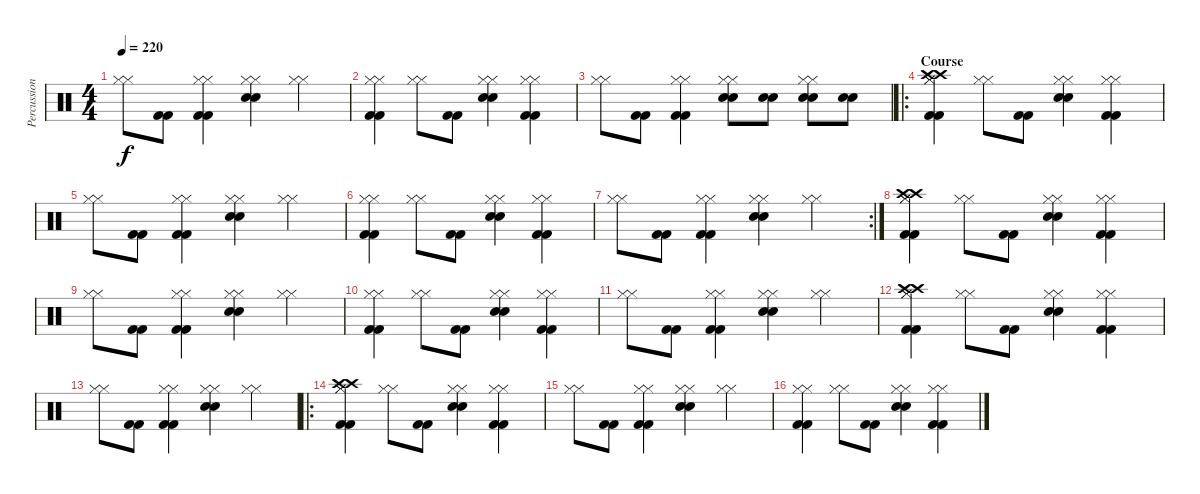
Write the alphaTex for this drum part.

\track ("Percussion" "Percussion") {instrument percussion}
\staff {score}
\articulation defaults
\ts (4 4)
\tempo 220
\clef neutral
\ks c
("Hi-Hat (closed)" "Hi-Hat (closed)").8{dy f} ("Kick (hit) 2" "Kick (hit) 2").8 ("Hi-Hat (closed)" "Hi-Hat (closed)" "Kick (hit) 2" "Kick (hit) 2").4 ("Hi-Hat (closed)" "Hi-Hat (closed)" "Electric Snare (hit)" "Electric Snare (hit)").4 ("Hi-Hat (closed)" "Hi-Hat (closed)").4 |
("Hi-Hat (closed)" "Hi-Hat (closed)" "Kick (hit) 2" "Kick (hit) 2").4 ("Hi-Hat (closed)" "Hi-Hat (closed)").8 ("Kick (hit) 2" "Kick (hit) 2").8 ("Hi-Hat (closed)" "Hi-Hat (closed)" "Electric Snare (hit)" "Electric Snare (hit)").4 ("Hi-Hat (closed)" "Hi-Hat (closed)" "Kick (hit) 2" "Kick (hit) 2").4 |
("Hi-Hat (closed)" "Hi-Hat (closed)").8 ("Kick (hit) 2" "Kick (hit) 2").8 ("Hi-Hat (closed)" "Hi-Hat (closed)" "Kick (hit) 2" "Kick (hit) 2").4 ("Hi-Hat (closed)" "Hi-Hat (closed)" "Electric Snare (hit)" "Electric Snare (hit)").8 ("Electric Snare (hit)" "Electric Snare (hit)").8 ("Hi-Hat (closed)" "Hi-Hat (closed)" "Electric Snare (hit)" "Electric Snare (hit)").8 ("Electric Snare (hit)" "Electric Snare (hit)").8 |
\ro
\section ("" "Course")
("Hi-Hat (closed)" "Hi-Hat (closed)" "Kick (hit) 2" "Kick (hit) 2" "Crash high (hit)" "Crash high (hit)").4 ("Hi-Hat (closed)" "Hi-Hat (closed)").8 ("Kick (hit) 2" "Kick (hit) 2").8 ("Hi-Hat (closed)" "Hi-Hat (closed)" "Electric Snare (hit)" "Electric Snare (hit)").4 ("Hi-Hat (closed)" "Hi-Hat (closed)" "Kick (hit) 2" "Kick (hit) 2").4 |
("Hi-Hat (closed)" "Hi-Hat (closed)").8 ("Kick (hit) 2" "Kick (hit) 2").8 ("Hi-Hat (closed)" "Hi-Hat (closed)" "Kick (hit) 2" "Kick (hit) 2").4 ("Hi-Hat (closed)" "Hi-Hat (closed)" "Electric Snare (hit)" "Electric Snare (hit)").4 ("Hi-Hat (closed)" "Hi-Hat (closed)").4 |
("Hi-Hat (closed)" "Hi-Hat (closed)" "Kick (hit) 2" "Kick (hit) 2").4 ("Hi-Hat (closed)" "Hi-Hat (closed)").8 ("Kick (hit) 2" "Kick (hit) 2").8 ("Hi-Hat (closed)" "Hi-Hat (closed)" "Electric Snare (hit)" "Electric Snare (hit)").4 ("Hi-Hat (closed)" "Hi-Hat (closed)" "Kick (hit) 2" "Kick (hit) 2").4 |
\rc 2
("Hi-Hat (closed)" "Hi-Hat (closed)").8 ("Kick (hit) 2" "Kick (hit) 2").8 ("Hi-Hat (closed)" "Hi-Hat (closed)" "Kick (hit) 2" "Kick (hit) 2").4 ("Hi-Hat (closed)" "Hi-Hat (closed)" "Electric Snare (hit)" "Electric Snare (hit)").4 ("Hi-Hat (closed)" "Hi-Hat (closed)").4 |
("Hi-Hat (closed)" "Hi-Hat (closed)" "Kick (hit) 2" "Kick (hit) 2" "Crash high (hit)" "Crash high (hit)").4 ("Hi-Hat (closed)" "Hi-Hat (closed)").8 ("Kick (hit) 2" "Kick (hit) 2").8 ("Hi-Hat (closed)" "Hi-Hat (closed)" "Electric Snare (hit)" "Electric Snare (hit)").4 ("Hi-Hat (closed)" "Hi-Hat (closed)" "Kick (hit) 2" "Kick (hit) 2").4 |
("Hi-Hat (closed)" "Hi-Hat (closed)").8 ("Kick (hit) 2" "Kick (hit) 2").8 ("Hi-Hat (closed)" "Hi-Hat (closed)" "Kick (hit) 2" "Kick (hit) 2").4 ("Hi-Hat (closed)" "Hi-Hat (closed)" "Electric Snare (hit)" "Electric Snare (hit)").4 ("Hi-Hat (closed)" "Hi-Hat (closed)").4 |
("Hi-Hat (closed)" "Hi-Hat (closed)" "Kick (hit) 2" "Kick (hit) 2").4 ("Hi-Hat (closed)" "Hi-Hat (closed)").8 ("Kick (hit) 2" "Kick (hit) 2").8 ("Hi-Hat (closed)" "Hi-Hat (closed)" "Electric Snare (hit)" "Electric Snare (hit)").4 ("Hi-Hat (closed)" "Hi-Hat (closed)" "Kick (hit) 2" "Kick (hit) 2").4 |
("Hi-Hat (closed)" "Hi-Hat (closed)").8 ("Kick (hit) 2" "Kick (hit) 2").8 ("Hi-Hat (closed)" "Hi-Hat (closed)" "Kick (hit) 2" "Kick (hit) 2").4 ("Hi-Hat (closed)" "Hi-Hat (closed)" "Electric Snare (hit)" "Electric Snare (hit)").4 ("Hi-Hat (closed)" "Hi-Hat (closed)").4 |
("Hi-Hat (closed)" "Hi-Hat (closed)" "Kick (hit) 2" "Kick (hit) 2" "Crash high (hit)" "Crash high (hit)").4 ("Hi-Hat (closed)" "Hi-Hat (closed)").8 ("Kick (hit) 2" "Kick (hit) 2").8 ("Hi-Hat (closed)" "Hi-Hat (closed)" "Electric Snare (hit)" "Electric Snare (hit)").4 ("Hi-Hat (closed)" "Hi-Hat (closed)" "Kick (hit) 2" "Kick (hit) 2").4 |
("Hi-Hat (closed)" "Hi-Hat (closed)").8 ("Kick (hit) 2" "Kick (hit) 2").8 ("Hi-Hat (closed)" "Hi-Hat (closed)" "Kick (hit) 2" "Kick (hit) 2").4 ("Hi-Hat (closed)" "Hi-Hat (closed)" "Electric Snare (hit)" "Electric Snare (hit)").4 ("Hi-Hat (closed)" "Hi-Hat (closed)").4 |
\ro
("Hi-Hat (closed)" "Hi-Hat (closed)" "Kick (hit) 2" "Kick (hit) 2" "Crash high (hit)" "Crash high (hit)").4 ("Hi-Hat (closed)" "Hi-Hat (closed)").8 ("Kick (hit) 2" "Kick (hit) 2").8 ("Hi-Hat (closed)" "Hi-Hat (closed)" "Electric Snare (hit)" "Electric Snare (hit)").4 ("Hi-Hat (closed)" "Hi-Hat (closed)" "Kick (hit) 2" "Kick (hit) 2").4 |
("Hi-Hat (closed)" "Hi-Hat (closed)").8 ("Kick (hit) 2" "Kick (hit) 2").8 ("Hi-Hat (closed)" "Hi-Hat (closed)" "Kick (hit) 2" "Kick (hit) 2").4 ("Hi-Hat (closed)" "Hi-Hat (closed)" "Electric Snare (hit)" "Electric Snare (hit)").4 ("Hi-Hat (closed)" "Hi-Hat (closed)").4 |
("Hi-Hat (closed)" "Hi-Hat (closed)" "Kick (hit) 2" "Kick (hit) 2").4 ("Hi-Hat (closed)" "Hi-Hat (closed)").8 ("Kick (hit) 2" "Kick (hit) 2").8 ("Hi-Hat (closed)" "Hi-Hat (closed)" "Electric Snare (hit)" "Electric Snare (hit)").4 ("Hi-Hat (closed)" "Hi-Hat (closed)" "Kick (hit) 2" "Kick (hit) 2").4
